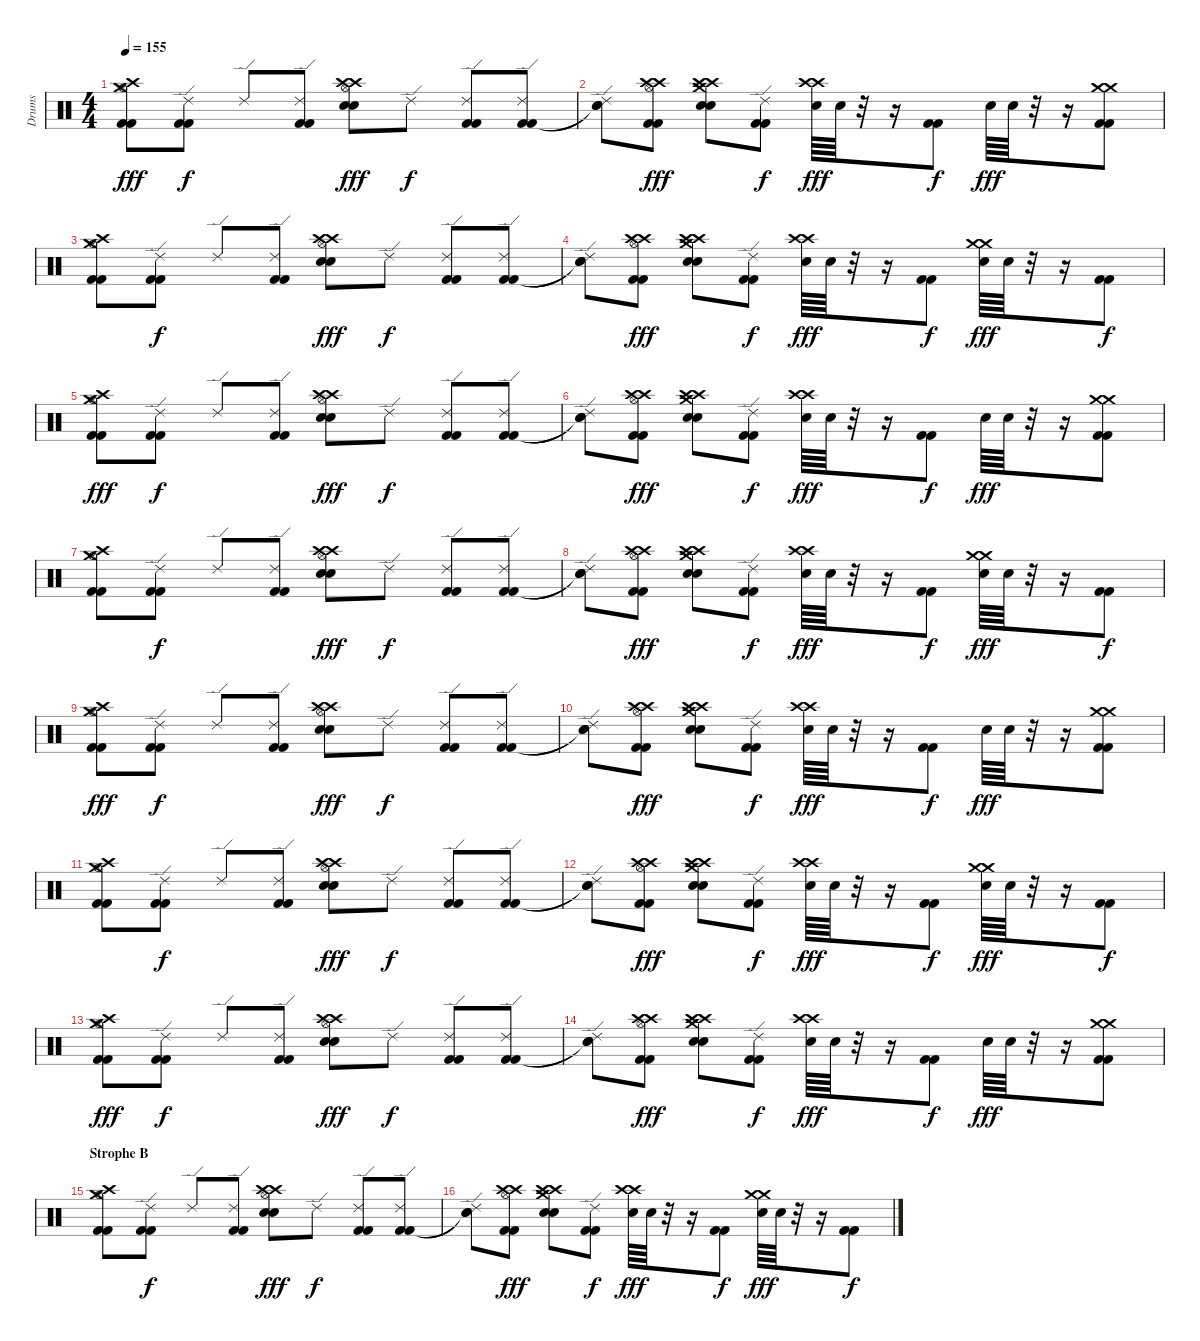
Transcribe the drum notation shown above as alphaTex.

\track ("Drums" "Drums") {instrument percussion}
\staff {score}
\articulation defaults
\ts (4 4)
\tempo 155
\clef neutral
\ks c
("Crash high (hit)" "Crash medium (hit)" "Hi-Hat (open)" "Kick (hit) 2" "Kick (hit) 2").8{dy fff} ("Ride (edge) 2" "Kick (hit) 2" "Kick (hit) 2").8{dy f} "Ride (edge) 2".8 ("Ride (edge) 2" "Kick (hit) 2" "Kick (hit) 2").8 ("Crash high (hit)" "Crash high (hit)" "Hi-Hat (open)" "Snare (hit) 2" "Electric Snare (hit)").8{dy fff} "Ride (edge) 2".8{dy f} ("Ride (edge) 2" "Kick (hit) 2" "Kick (hit) 2").8 ("Ride (edge) 2" "Kick (hit) 2" "Kick (hit) 2").8 |
("Ride (edge) 2" "Snare (hit)"{t} "Snare (hit)"{t}).8 ("Crash high (hit)" "Crash high (hit)" "Hi-Hat (open)" "Kick (hit) 2" "Kick (hit) 2").8{dy fff} ("Crash high (hit)" "Crash high (hit)" "Crash medium (hit)" "Electric Snare (hit)" "Snare (hit) 2").8 ("Ride (edge) 2" "Kick (hit) 2" "Kick (hit) 2").8{dy f} ("Crash high (hit)" "Crash high (hit)" "Snare (hit) 2").64{dy fff} "Electric Snare (hit)".64 r.32 r.16 ("Kick (hit) 2" "Kick (hit) 2").8{dy f} "Snare (hit) 2".64{dy fff} "Electric Snare (hit)".64 r.32 r.16 ("Crash medium (hit)" "Crash medium (hit)" "Kick (hit) 2" "Kick (hit) 2").8 |
("Crash high (hit)" "Crash medium (hit)" "Hi-Hat (open)" "Kick (hit) 2" "Kick (hit) 2").8 ("Ride (edge) 2" "Kick (hit) 2" "Kick (hit) 2").8{dy f} "Ride (edge) 2".8 ("Ride (edge) 2" "Kick (hit) 2" "Kick (hit) 2").8 ("Crash high (hit)" "Crash high (hit)" "Hi-Hat (open)" "Snare (hit) 2" "Electric Snare (hit)").8{dy fff} "Ride (edge) 2".8{dy f} ("Ride (edge) 2" "Kick (hit) 2" "Kick (hit) 2").8 ("Ride (edge) 2" "Kick (hit) 2" "Kick (hit) 2").8 |
("Ride (edge) 2" "Snare (hit)"{t} "Snare (hit)"{t}).8 ("Crash high (hit)" "Crash high (hit)" "Hi-Hat (open)" "Kick (hit) 2" "Kick (hit) 2").8{dy fff} ("Crash high (hit)" "Crash high (hit)" "Crash medium (hit)" "Electric Snare (hit)" "Snare (hit) 2").8 ("Ride (edge) 2" "Kick (hit) 2" "Kick (hit) 2").8{dy f} ("Crash high (hit)" "Crash high (hit)" "Snare (hit) 2").64{dy fff} "Electric Snare (hit)".64 r.32 r.16 ("Kick (hit) 2" "Kick (hit) 2").8{dy f} ("Crash medium (hit)" "Crash medium (hit)" "Snare (hit) 2").64{dy fff} "Electric Snare (hit)".64 r.32 r.16 ("Kick (hit) 2" "Kick (hit) 2").8{dy f} |
("Crash high (hit)" "Crash medium (hit)" "Hi-Hat (open)" "Kick (hit) 2" "Kick (hit) 2").8{dy fff} ("Ride (edge) 2" "Kick (hit) 2" "Kick (hit) 2").8{dy f} "Ride (edge) 2".8 ("Ride (edge) 2" "Kick (hit) 2" "Kick (hit) 2").8 ("Crash high (hit)" "Crash high (hit)" "Hi-Hat (open)" "Snare (hit) 2" "Electric Snare (hit)").8{dy fff} "Ride (edge) 2".8{dy f} ("Ride (edge) 2" "Kick (hit) 2" "Kick (hit) 2").8 ("Ride (edge) 2" "Kick (hit) 2" "Kick (hit) 2").8 |
("Ride (edge) 2" "Snare (hit)"{t} "Snare (hit)"{t}).8 ("Crash high (hit)" "Crash high (hit)" "Hi-Hat (open)" "Kick (hit) 2" "Kick (hit) 2").8{dy fff} ("Crash high (hit)" "Crash high (hit)" "Crash medium (hit)" "Electric Snare (hit)" "Snare (hit) 2").8 ("Ride (edge) 2" "Kick (hit) 2" "Kick (hit) 2").8{dy f} ("Crash high (hit)" "Crash high (hit)" "Snare (hit) 2").64{dy fff} "Electric Snare (hit)".64 r.32 r.16 ("Kick (hit) 2" "Kick (hit) 2").8{dy f} "Snare (hit) 2".64{dy fff} "Electric Snare (hit)".64 r.32 r.16 ("Crash medium (hit)" "Crash medium (hit)" "Kick (hit) 2" "Kick (hit) 2").8 |
("Crash high (hit)" "Crash medium (hit)" "Hi-Hat (open)" "Kick (hit) 2" "Kick (hit) 2").8 ("Ride (edge) 2" "Kick (hit) 2" "Kick (hit) 2").8{dy f} "Ride (edge) 2".8 ("Ride (edge) 2" "Kick (hit) 2" "Kick (hit) 2").8 ("Crash high (hit)" "Crash high (hit)" "Hi-Hat (open)" "Snare (hit) 2" "Electric Snare (hit)").8{dy fff} "Ride (edge) 2".8{dy f} ("Ride (edge) 2" "Kick (hit) 2" "Kick (hit) 2").8 ("Ride (edge) 2" "Kick (hit) 2" "Kick (hit) 2").8 |
("Ride (edge) 2" "Snare (hit)"{t} "Snare (hit)"{t}).8 ("Crash high (hit)" "Crash high (hit)" "Hi-Hat (open)" "Kick (hit) 2" "Kick (hit) 2").8{dy fff} ("Crash high (hit)" "Crash high (hit)" "Crash medium (hit)" "Electric Snare (hit)" "Snare (hit) 2").8 ("Ride (edge) 2" "Kick (hit) 2" "Kick (hit) 2").8{dy f} ("Crash high (hit)" "Crash high (hit)" "Snare (hit) 2").64{dy fff} "Electric Snare (hit)".64 r.32 r.16 ("Kick (hit) 2" "Kick (hit) 2").8{dy f} ("Crash medium (hit)" "Crash medium (hit)" "Snare (hit) 2").64{dy fff} "Electric Snare (hit)".64 r.32 r.16 ("Kick (hit) 2" "Kick (hit) 2").8{dy f} |
("Crash high (hit)" "Crash medium (hit)" "Hi-Hat (open)" "Kick (hit) 2" "Kick (hit) 2").8{dy fff} ("Ride (edge) 2" "Kick (hit) 2" "Kick (hit) 2").8{dy f} "Ride (edge) 2".8 ("Ride (edge) 2" "Kick (hit) 2" "Kick (hit) 2").8 ("Crash high (hit)" "Crash high (hit)" "Hi-Hat (open)" "Snare (hit) 2" "Electric Snare (hit)").8{dy fff} "Ride (edge) 2".8{dy f} ("Ride (edge) 2" "Kick (hit) 2" "Kick (hit) 2").8 ("Ride (edge) 2" "Kick (hit) 2" "Kick (hit) 2").8 |
("Ride (edge) 2" "Snare (hit)"{t} "Snare (hit)"{t}).8 ("Crash high (hit)" "Crash high (hit)" "Hi-Hat (open)" "Kick (hit) 2" "Kick (hit) 2").8{dy fff} ("Crash high (hit)" "Crash high (hit)" "Crash medium (hit)" "Electric Snare (hit)" "Snare (hit) 2").8 ("Ride (edge) 2" "Kick (hit) 2" "Kick (hit) 2").8{dy f} ("Crash high (hit)" "Crash high (hit)" "Snare (hit) 2").64{dy fff} "Electric Snare (hit)".64 r.32 r.16 ("Kick (hit) 2" "Kick (hit) 2").8{dy f} "Snare (hit) 2".64{dy fff} "Electric Snare (hit)".64 r.32 r.16 ("Crash medium (hit)" "Crash medium (hit)" "Kick (hit) 2" "Kick (hit) 2").8 |
("Crash high (hit)" "Crash medium (hit)" "Hi-Hat (open)" "Kick (hit) 2" "Kick (hit) 2").8 ("Ride (edge) 2" "Kick (hit) 2" "Kick (hit) 2").8{dy f} "Ride (edge) 2".8 ("Ride (edge) 2" "Kick (hit) 2" "Kick (hit) 2").8 ("Crash high (hit)" "Crash high (hit)" "Hi-Hat (open)" "Snare (hit) 2" "Electric Snare (hit)").8{dy fff} "Ride (edge) 2".8{dy f} ("Ride (edge) 2" "Kick (hit) 2" "Kick (hit) 2").8 ("Ride (edge) 2" "Kick (hit) 2" "Kick (hit) 2").8 |
("Ride (edge) 2" "Snare (hit)"{t} "Snare (hit)"{t}).8 ("Crash high (hit)" "Crash high (hit)" "Hi-Hat (open)" "Kick (hit) 2" "Kick (hit) 2").8{dy fff} ("Crash high (hit)" "Crash high (hit)" "Crash medium (hit)" "Electric Snare (hit)" "Snare (hit) 2").8 ("Ride (edge) 2" "Kick (hit) 2" "Kick (hit) 2").8{dy f} ("Crash high (hit)" "Crash high (hit)" "Snare (hit) 2").64{dy fff} "Electric Snare (hit)".64 r.32 r.16 ("Kick (hit) 2" "Kick (hit) 2").8{dy f} ("Crash medium (hit)" "Crash medium (hit)" "Snare (hit) 2").64{dy fff} "Electric Snare (hit)".64 r.32 r.16 ("Kick (hit) 2" "Kick (hit) 2").8{dy f} |
("Crash high (hit)" "Crash medium (hit)" "Hi-Hat (open)" "Kick (hit) 2" "Kick (hit) 2").8{dy fff} ("Ride (edge) 2" "Kick (hit) 2" "Kick (hit) 2").8{dy f} "Ride (edge) 2".8 ("Ride (edge) 2" "Kick (hit) 2" "Kick (hit) 2").8 ("Crash high (hit)" "Crash high (hit)" "Hi-Hat (open)" "Snare (hit) 2" "Electric Snare (hit)").8{dy fff} "Ride (edge) 2".8{dy f} ("Ride (edge) 2" "Kick (hit) 2" "Kick (hit) 2").8 ("Ride (edge) 2" "Kick (hit) 2" "Kick (hit) 2").8 |
("Ride (edge) 2" "Snare (hit)"{t} "Snare (hit)"{t}).8 ("Crash high (hit)" "Crash high (hit)" "Hi-Hat (open)" "Kick (hit) 2" "Kick (hit) 2").8{dy fff} ("Crash high (hit)" "Crash high (hit)" "Crash medium (hit)" "Electric Snare (hit)" "Snare (hit) 2").8 ("Ride (edge) 2" "Kick (hit) 2" "Kick (hit) 2").8{dy f} ("Crash high (hit)" "Crash high (hit)" "Snare (hit) 2").64{dy fff} "Electric Snare (hit)".64 r.32 r.16 ("Kick (hit) 2" "Kick (hit) 2").8{dy f} "Snare (hit) 2".64{dy fff} "Electric Snare (hit)".64 r.32 r.16 ("Crash medium (hit)" "Crash medium (hit)" "Kick (hit) 2" "Kick (hit) 2").8 |
\section ("" "Strophe B")
("Crash high (hit)" "Crash medium (hit)" "Hi-Hat (open)" "Kick (hit) 2" "Kick (hit) 2").8 ("Ride (edge) 2" "Kick (hit) 2" "Kick (hit) 2").8{dy f} "Ride (edge) 2".8 ("Ride (edge) 2" "Kick (hit) 2" "Kick (hit) 2").8 ("Crash high (hit)" "Crash high (hit)" "Hi-Hat (open)" "Snare (hit) 2" "Electric Snare (hit)").8{dy fff} "Ride (edge) 2".8{dy f} ("Ride (edge) 2" "Kick (hit) 2" "Kick (hit) 2").8 ("Ride (edge) 2" "Kick (hit) 2" "Kick (hit) 2").8 |
("Ride (edge) 2" "Snare (hit)"{t} "Snare (hit)"{t}).8 ("Crash high (hit)" "Crash high (hit)" "Hi-Hat (open)" "Kick (hit) 2" "Kick (hit) 2").8{dy fff} ("Crash high (hit)" "Crash high (hit)" "Crash medium (hit)" "Electric Snare (hit)" "Snare (hit) 2").8 ("Ride (edge) 2" "Kick (hit) 2" "Kick (hit) 2").8{dy f} ("Crash high (hit)" "Crash high (hit)" "Snare (hit) 2").64{dy fff} "Electric Snare (hit)".64 r.32 r.16 ("Kick (hit) 2" "Kick (hit) 2").8{dy f} ("Crash medium (hit)" "Crash medium (hit)" "Snare (hit) 2").64{dy fff} "Electric Snare (hit)".64 r.32 r.16 ("Kick (hit) 2" "Kick (hit) 2").8{dy f}
